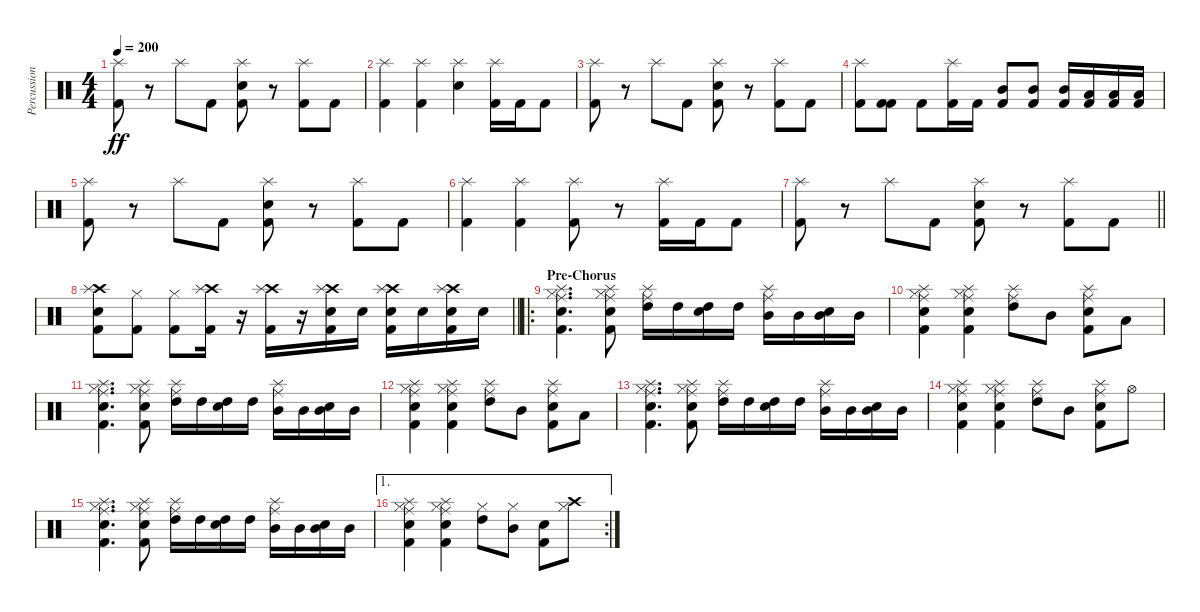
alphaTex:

\track ("Percussion" "Percussion") {instrument percussion}
\staff {score}
\articulation defaults
\ts (4 4)
\tempo 200
\clef neutral
\ks c
("Splash (hit)" "Kick (hit) 2").8{dy ff} r.8 "Splash (hit)".8 "Kick (hit) 2".8 ("Splash (hit)" "Electric Snare (hit)" "Kick (hit) 2").8 r.8 ("Splash (hit)" "Kick (hit) 2").8 "Kick (hit) 2".8 |
("Splash (hit)" "Kick (hit) 2").4 ("Splash (hit)" "Kick (hit) 2").4 ("Splash (hit)" "Electric Snare (hit)").4 ("Splash (hit)" "Kick (hit) 2").16 "Kick (hit) 2".16 "Kick (hit) 2".8 |
("Splash (hit)" "Kick (hit) 2").8 r.8 "Splash (hit)".8 "Kick (hit) 2".8 ("Splash (hit)" "Electric Snare (hit)" "Kick (hit) 2").8 r.8 ("Splash (hit)" "Kick (hit) 2").8 "Kick (hit) 2".8 |
("Splash (hit)" "Kick (hit) 2").8 ("Kick (hit) 2" "Kick (hit) 2").8 "Kick (hit) 2".8 ("Splash (hit)" "Kick (hit) 2").16 "Kick (hit) 2".16 ("Mid Tom (hit)" "Kick (hit) 2").8 ("Mid Tom (hit)" "Kick (hit) 2").8 ("Mid Tom (hit)" "Kick (hit) 2").16 ("Low Tom (hit)" "Kick (hit) 2").16 ("Low Tom (hit)" "Kick (hit) 2").16 ("Low Tom (hit)" "Kick (hit) 2").16 |
("Splash (hit)" "Kick (hit) 2").8 r.8 "Splash (hit)".8 "Kick (hit) 2".8 ("Splash (hit)" "Electric Snare (hit)" "Kick (hit) 2").8 r.8 ("Splash (hit)" "Kick (hit) 2").8 "Kick (hit) 2".8 |
("Splash (hit)" "Kick (hit) 2").4 ("Splash (hit)" "Kick (hit) 2").4 ("Splash (hit)" "Kick (hit) 2").8 r.8 ("Splash (hit)" "Kick (hit) 2").16 "Kick (hit) 2".16 "Kick (hit) 2".8 |
\barLineRight lightlight
("Splash (hit)" "Kick (hit) 2").8 r.8 "Splash (hit)".8 "Kick (hit) 2".8 ("Splash (hit)" "Electric Snare (hit)" "Kick (hit) 2").8 r.8 ("Splash (hit)" "Kick (hit) 2").8 "Kick (hit) 2".8 |
\barLineRight lightlight
("Crash high (hit)" "Splash (hit)" "Electric Snare (hit)" "Kick (hit) 2").8 ("Hi-Hat (closed)" "Kick (hit) 2").8 ("Hi-Hat (closed)" "Kick (hit) 2").8 ("Crash high (hit)" "Splash (hit)" "Kick (hit) 2").16 r.16 ("Crash high (hit)" "Splash (hit)" "Kick (hit) 2").16 r.16 ("Crash high (hit)" "Splash (hit)" "Electric Snare (hit)" "Kick (hit) 2").16 "Electric Snare (hit)".16 ("Crash high (hit)" "Splash (hit)" "Electric Snare (hit)" "Kick (hit) 2").16 "Electric Snare (hit)".16 ("Crash high (hit)" "Splash (hit)" "Electric Snare (hit)" "Kick (hit) 2").16 "Electric Snare (hit)".16 |
\ro
\section ("" "Pre-Chorus")
("Splash (hit)" "Ride (middle)" "Hi-Hat (closed)" "Electric Snare (hit)" "Kick (hit) 2").4{d} ("Splash (hit)" "Ride (middle)" "Hi-Hat (closed)" "Electric Snare (hit)" "Kick (hit) 2").8 ("Splash (hit)" "Ride (middle)" "High Tom (hit)").16 "High Tom (hit)".16 ("Electric Snare (hit)" "High Tom (hit)").16 "High Tom (hit)".16 ("Splash (hit)" "Ride (middle)" "Mid Tom (hit)").16 "Mid Tom (hit)".16 ("Electric Snare (hit)" "Mid Tom (hit)").16 "Mid Tom (hit)".16 |
("Splash (hit)" "Ride (middle)" "Hi-Hat (closed)" "Electric Snare (hit)" "Kick (hit) 2").4 ("Splash (hit)" "Ride (middle)" "Hi-Hat (closed)" "Electric Snare (hit)" "Kick (hit) 2").4 ("Splash (hit)" "Ride (middle)" "High Tom (hit)").8 "Mid Tom (hit)".8 ("Splash (hit)" "Ride (middle)" "Electric Snare (hit)" "Kick (hit) 2").8 "Low Tom (hit)".8 |
("Splash (hit)" "Ride (middle)" "Hi-Hat (closed)" "Electric Snare (hit)" "Kick (hit) 2").4{d} ("Splash (hit)" "Ride (middle)" "Hi-Hat (closed)" "Electric Snare (hit)" "Kick (hit) 2").8 ("Splash (hit)" "Ride (middle)" "High Tom (hit)").16 "High Tom (hit)".16 ("Electric Snare (hit)" "High Tom (hit)").16 "High Tom (hit)".16 ("Splash (hit)" "Ride (middle)" "Mid Tom (hit)").16 "Mid Tom (hit)".16 ("Electric Snare (hit)" "Mid Tom (hit)").16 "Mid Tom (hit)".16 |
("Hi-Hat (closed)" "Splash (hit)" "Ride (middle)" "Electric Snare (hit)" "Kick (hit) 2").4 ("Hi-Hat (closed)" "Splash (hit)" "Ride (middle)" "Electric Snare (hit)" "Kick (hit) 2").4 ("Splash (hit)" "Ride (middle)" "High Tom (hit)").8 "Mid Tom (hit)".8 ("Splash (hit)" "Ride (middle)" "Electric Snare (hit)" "Kick (hit) 2").8 "Low Tom (hit)".8 |
("Splash (hit)" "Ride (middle)" "Hi-Hat (closed)" "Electric Snare (hit)" "Kick (hit) 2").4{d} ("Splash (hit)" "Ride (middle)" "Hi-Hat (closed)" "Electric Snare (hit)" "Kick (hit) 2").8 ("Splash (hit)" "Ride (middle)" "High Tom (hit)").16 "High Tom (hit)".16 ("Electric Snare (hit)" "High Tom (hit)").16 "High Tom (hit)".16 ("Splash (hit)" "Ride (middle)" "Mid Tom (hit)").16 "Mid Tom (hit)".16 ("Electric Snare (hit)" "Mid Tom (hit)").16 "Mid Tom (hit)".16 |
("Splash (hit)" "Ride (middle)" "Hi-Hat (closed)" "Electric Snare (hit)" "Kick (hit) 2").4 ("Splash (hit)" "Ride (middle)" "Hi-Hat (closed)" "Electric Snare (hit)" "Kick (hit) 2").4 ("Splash (hit)" "Ride (middle)" "High Tom (hit)").8 "Mid Tom (hit)".8 ("Splash (hit)" "Ride (middle)" "Electric Snare (hit)" "Kick (hit) 2").8 "Hi-Hat (open)".8 |
("Splash (hit)" "Ride (middle)" "Hi-Hat (closed)" "Electric Snare (hit)" "Kick (hit) 2").4{d} ("Splash (hit)" "Ride (middle)" "Hi-Hat (closed)" "Electric Snare (hit)" "Kick (hit) 2").8 ("Splash (hit)" "Ride (middle)" "High Tom (hit)").16 "High Tom (hit)".16 ("Electric Snare (hit)" "High Tom (hit)").16 "High Tom (hit)".16 ("Splash (hit)" "Ride (middle)" "Mid Tom (hit)").16 "Mid Tom (hit)".16 ("Electric Snare (hit)" "Mid Tom (hit)").16 "Mid Tom (hit)".16 |
\ae 1
\rc 2
("Splash (hit)" "Ride (middle)" "Hi-Hat (closed)" "Electric Snare (hit)" "Kick (hit) 2").4 ("Splash (hit)" "Ride (middle)" "Hi-Hat (closed)" "Electric Snare (hit)" "Kick (hit) 2").4 ("Hi-Hat (closed)" "High Tom (hit)").8 ("Hi-Hat (closed)" "Mid Tom (hit)").8 ("Electric Snare (hit)" "Kick (hit) 2").8 ("Crash high (hit)" "Hi-Hat (closed)").8
